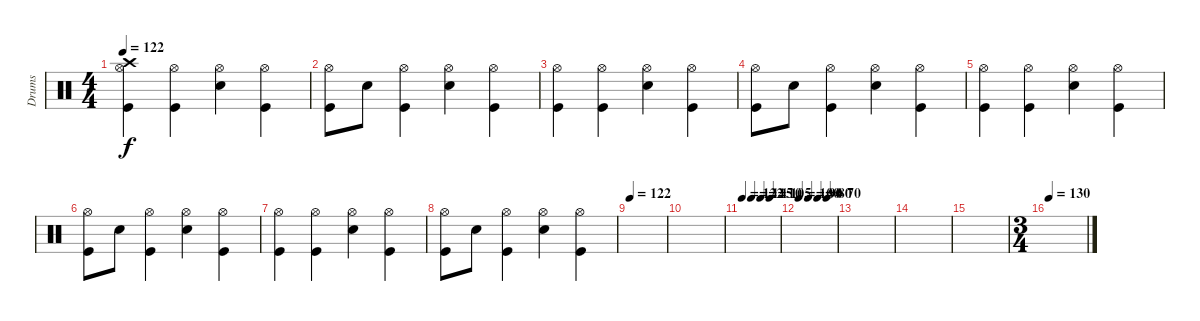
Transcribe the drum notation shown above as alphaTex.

\track ("Drums" "Drums") {instrument percussion}
\staff {score}
\articulation defaults
\ts (4 4)
\tempo 122
\clef neutral
\ks c
("Kick (hit)" "Hi-Hat (open)" "Crash high (hit)").4{dy f} ("Kick (hit)" "Hi-Hat (open)").4 ("Snare (hit) 2" "Hi-Hat (open)").4 ("Kick (hit)" "Hi-Hat (open)").4 |
("Kick (hit)" "Hi-Hat (open)").8 "Snare (hit) 2".8 ("Kick (hit)" "Hi-Hat (open)").4 ("Snare (hit) 2" "Hi-Hat (open)").4 ("Kick (hit)" "Hi-Hat (open)").4 |
("Kick (hit)" "Hi-Hat (open)").4 ("Kick (hit)" "Hi-Hat (open)").4 ("Snare (hit) 2" "Hi-Hat (open)").4 ("Kick (hit)" "Hi-Hat (open)").4 |
("Kick (hit)" "Hi-Hat (open)").8 "Snare (hit) 2".8 ("Kick (hit)" "Hi-Hat (open)").4 ("Snare (hit) 2" "Hi-Hat (open)").4 ("Kick (hit)" "Hi-Hat (open)").4 |
("Kick (hit)" "Hi-Hat (open)").4 ("Kick (hit)" "Hi-Hat (open)").4 ("Snare (hit) 2" "Hi-Hat (open)").4 ("Kick (hit)" "Hi-Hat (open)").4 |
("Kick (hit)" "Hi-Hat (open)").8 "Snare (hit) 2".8 ("Kick (hit)" "Hi-Hat (open)").4 ("Snare (hit) 2" "Hi-Hat (open)").4 ("Kick (hit)" "Hi-Hat (open)").4 |
("Kick (hit)" "Hi-Hat (open)").4 ("Kick (hit)" "Hi-Hat (open)").4 ("Snare (hit) 2" "Hi-Hat (open)").4 ("Kick (hit)" "Hi-Hat (open)").4 |
("Kick (hit)" "Hi-Hat (open)").8 "Snare (hit) 2".8 ("Kick (hit)" "Hi-Hat (open)").4 ("Snare (hit) 2" "Hi-Hat (open)").4 ("Kick (hit)" "Hi-Hat (open)").4 |
\tempo 122
|
|
\tempo 122
\tempo (115 0.25)
\tempo (110 0.5)
\tempo (105 0.75)
|
\tempo 100
\tempo (90 0.25)
\tempo (80 0.5)
\tempo (70 0.75)
|
|
|
|
\ts (3 4)
\tempo 130
